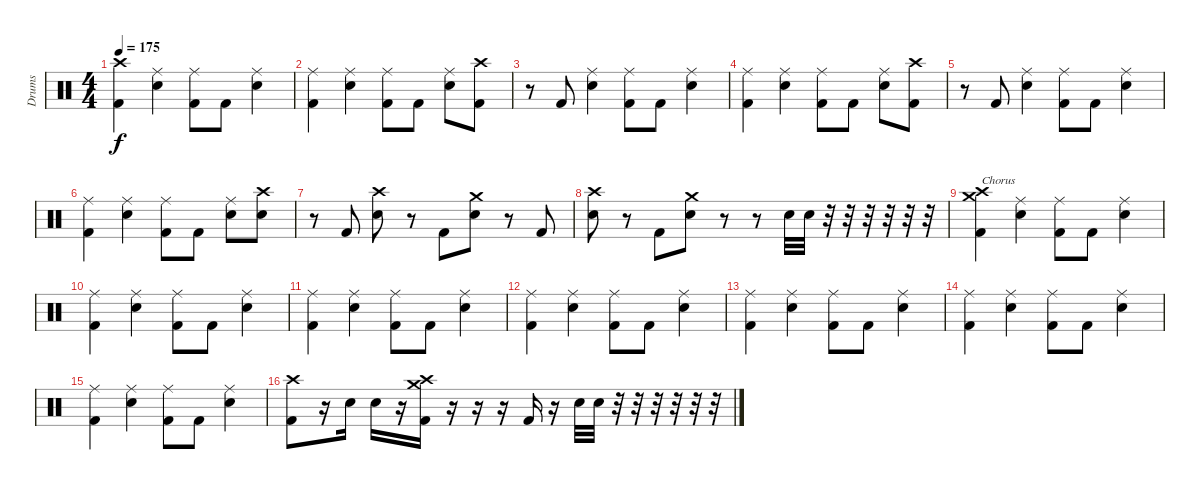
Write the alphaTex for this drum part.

\track ("Drums" "Drums") {instrument percussion}
\staff {score}
\articulation defaults
\ts (4 4)
\tempo 175
\clef neutral
\ks c
("Crash high (hit)" "Kick (hit) 2").4{dy f} ("Ride (middle)" "Electric Snare (hit)").4 ("Ride (middle)" "Kick (hit) 2").8 "Kick (hit) 2".8 ("Ride (middle)" "Electric Snare (hit)").4 |
("Ride (middle)" "Kick (hit) 2").4 ("Ride (middle)" "Electric Snare (hit)").4 ("Ride (middle)" "Kick (hit) 2").8 "Kick (hit) 2".8 ("Ride (middle)" "Electric Snare (hit)").8 ("Crash high (hit)" "Kick (hit) 2").8 |
r.8 "Kick (hit) 2".8 ("Ride (middle)" "Electric Snare (hit)").4 ("Ride (middle)" "Kick (hit) 2").8 "Kick (hit) 2".8 ("Ride (middle)" "Electric Snare (hit)").4 |
("Ride (middle)" "Kick (hit) 2").4 ("Ride (middle)" "Electric Snare (hit)").4 ("Ride (middle)" "Kick (hit) 2").8 "Kick (hit) 2".8 ("Ride (middle)" "Electric Snare (hit)").8 ("Crash high (hit)" "Kick (hit) 2").8 |
r.8 "Kick (hit) 2".8 ("Ride (middle)" "Electric Snare (hit)").4 ("Ride (middle)" "Kick (hit) 2").8 "Kick (hit) 2".8 ("Ride (middle)" "Electric Snare (hit)").4 |
("Ride (middle)" "Kick (hit) 2").4 ("Ride (middle)" "Electric Snare (hit)").4 ("Ride (middle)" "Kick (hit) 2").8 "Kick (hit) 2".8 ("Ride (middle)" "Electric Snare (hit)").8 ("Crash high (hit)" "Electric Snare (hit)").8 |
r.8 "Kick (hit) 2".8 ("Crash high (hit)" "Electric Snare (hit)").8 r.8 "Kick (hit) 2".8 ("Crash medium (hit)" "Electric Snare (hit)").8 r.8 "Kick (hit) 2".8 |
("Crash high (hit)" "Electric Snare (hit)").8 r.8 "Kick (hit) 2".8 ("Crash medium (hit)" "Electric Snare (hit)").8 r.8 r.8 "Electric Snare (hit)".32 "Electric Snare (hit)".32 r.32 r.32 r.32 r.32 r.32 r.32 |
("Crash high (hit)" "Crash medium (hit)" "Kick (hit) 2").4{txt "Chorus"} ("Ride (middle)" "Electric Snare (hit)").4 ("Ride (middle)" "Kick (hit) 2").8 "Kick (hit) 2".8 ("Ride (middle)" "Electric Snare (hit)").4 |
("Ride (middle)" "Kick (hit) 2").4 ("Ride (middle)" "Electric Snare (hit)").4 ("Ride (middle)" "Kick (hit) 2").8 "Kick (hit) 2".8 ("Ride (middle)" "Electric Snare (hit)").4 |
("Ride (middle)" "Kick (hit) 2").4 ("Ride (middle)" "Electric Snare (hit)").4 ("Ride (middle)" "Kick (hit) 2").8 "Kick (hit) 2".8 ("Ride (middle)" "Electric Snare (hit)").4 |
("Ride (middle)" "Kick (hit) 2").4 ("Ride (middle)" "Electric Snare (hit)").4 ("Ride (middle)" "Kick (hit) 2").8 "Kick (hit) 2".8 ("Ride (middle)" "Electric Snare (hit)").4 |
("Ride (middle)" "Kick (hit) 2").4 ("Ride (middle)" "Electric Snare (hit)").4 ("Ride (middle)" "Kick (hit) 2").8 "Kick (hit) 2".8 ("Ride (middle)" "Electric Snare (hit)").4 |
("Ride (middle)" "Kick (hit) 2").4 ("Ride (middle)" "Electric Snare (hit)").4 ("Ride (middle)" "Kick (hit) 2").8 "Kick (hit) 2".8 ("Ride (middle)" "Electric Snare (hit)").4 |
("Ride (middle)" "Kick (hit) 2").4 ("Ride (middle)" "Electric Snare (hit)").4 ("Ride (middle)" "Kick (hit) 2").8 "Kick (hit) 2".8 ("Ride (middle)" "Electric Snare (hit)").4 |
("Crash high (hit)" "Kick (hit) 2").8 r.16 "Electric Snare (hit)".16 "Electric Snare (hit)".16 r.16 ("Crash high (hit)" "Crash medium (hit)" "Kick (hit) 2").16 r.16 r.16 r.16 "Kick (hit) 2".16 r.16 "Electric Snare (hit)".32 "Electric Snare (hit)".32 r.32 r.32 r.32 r.32 r.32 r.32
